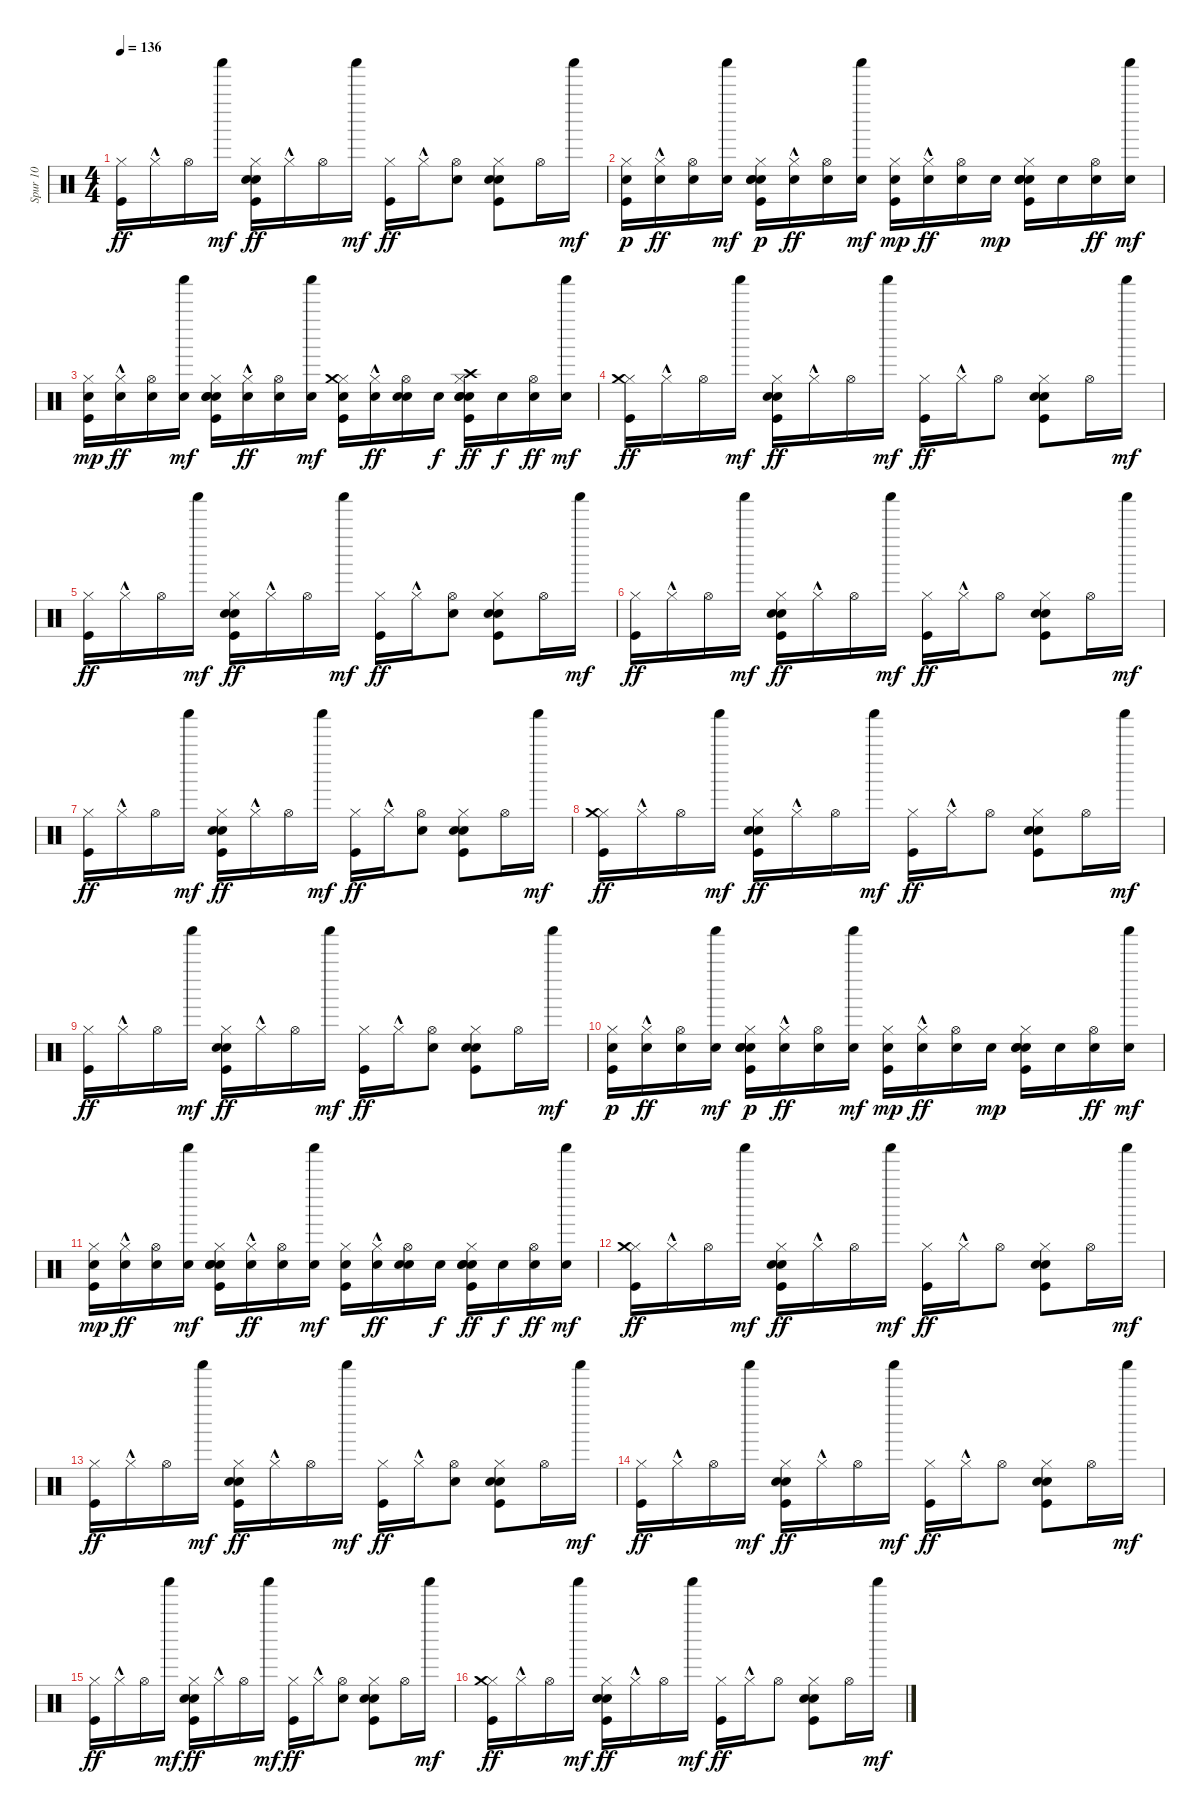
\track ("Spur 10" "Spur 10") {instrument percussion}
\staff {score}
\articulation defaults
\ts (4 4)
\tempo 136
\clef neutral
\ks c
("Kick (hit)" "Hi-Hat (closed)").16{dy ff} "Hi-Hat (closed)"{hac}.16 "Hi-Hat (open)".16 "Shaker (hit)".16{dy mf} ("Kick (hit)" "Electric Snare (hit)" "Hi-Hat (closed)" "Hand Clap (hit)").16{dy ff} "Hi-Hat (closed)"{hac}.16 "Hi-Hat (open)".16 "Shaker (hit)".16{dy mf} ("Kick (hit)" "Hi-Hat (closed)").16{dy ff} "Hi-Hat (closed)"{hac}.16 ("Hi-Hat (open)" "Hand Clap (hit)").8 ("Kick (hit)" "Electric Snare (hit)" "Hi-Hat (closed)" "Hand Clap (hit)").8 "Hi-Hat (open)".16 "Shaker (hit)".16{dy mf} |
("Kick (hit)" "Snare (hit) 2" "Hi-Hat (closed)").16{dy p} ("Snare (hit) 2" "Hi-Hat (closed)"{hac}).16{dy ff} ("Snare (hit) 2" "Hi-Hat (open)").16 ("Snare (hit) 2" "Shaker (hit)").16{dy mf} ("Kick (hit)" "Electric Snare (hit)" "Snare (hit) 2" "Hi-Hat (closed)" "Hand Clap (hit)").16{dy p} ("Snare (hit) 2" "Hi-Hat (closed)"{hac}).16{dy ff} ("Snare (hit) 2" "Hi-Hat (open)").16 ("Snare (hit) 2" "Shaker (hit)").16{dy mf} ("Kick (hit)" "Snare (hit) 2" "Hi-Hat (closed)").16{dy mp} ("Snare (hit) 2" "Hi-Hat (closed)"{hac}).16{dy ff} ("Snare (hit) 2" "Hi-Hat (open)").16 "Snare (hit) 2".16{dy mp} ("Kick (hit)" "Electric Snare (hit)" "Snare (hit) 2" "Hi-Hat (closed)" "Hand Clap (hit)").16 "Snare (hit) 2".16 ("Snare (hit) 2" "Hi-Hat (open)").16{dy ff} ("Snare (hit) 2" "Shaker (hit)").16{dy mf} |
("Kick (hit)" "Snare (hit) 2" "Hi-Hat (closed)").16{dy mp} ("Snare (hit) 2" "Hi-Hat (closed)"{hac}).16{dy ff} ("Snare (hit) 2" "Hi-Hat (open)").16 ("Snare (hit) 2" "Shaker (hit)").16{dy mf} ("Kick (hit)" "Electric Snare (hit)" "Snare (hit) 2" "Hi-Hat (closed)" "Hand Clap (hit)").16 ("Snare (hit) 2" "Hi-Hat (closed)"{hac}).16{dy ff} ("Snare (hit) 2" "Hi-Hat (open)").16 ("Snare (hit) 2" "Shaker (hit)").16{dy mf} ("Kick (hit)" "Snare (hit) 2" "Hi-Hat (closed)" "Crash medium (hit)").16 ("Snare (hit) 2" "Hi-Hat (closed)"{hac}).16{dy ff} ("Snare (hit) 2" "Hi-Hat (open)" "Hand Clap (hit)").16 "Snare (hit) 2".16{dy f} ("Kick (hit)" "Electric Snare (hit)" "Snare (hit) 2" "Hi-Hat (closed)" "Crash high (hit)" "Hand Clap (hit)").16{dy ff} "Snare (hit) 2".16{dy f} ("Snare (hit) 2" "Hi-Hat (open)").16{dy ff} ("Snare (hit) 2" "Shaker (hit)").16{dy mf} |
("Kick (hit)" "Hi-Hat (closed)" "Crash medium (hit)").16{dy ff} "Hi-Hat (closed)"{hac}.16 "Hi-Hat (open)".16 "Shaker (hit)".16{dy mf} ("Kick (hit)" "Electric Snare (hit)" "Hi-Hat (closed)" "Hand Clap (hit)").16{dy ff} "Hi-Hat (closed)"{hac}.16 "Hi-Hat (open)".16 "Shaker (hit)".16{dy mf} ("Kick (hit)" "Hi-Hat (closed)").16{dy ff} "Hi-Hat (closed)"{hac}.16 "Hi-Hat (open)".8 ("Kick (hit)" "Electric Snare (hit)" "Hi-Hat (closed)" "Hand Clap (hit)").8 "Hi-Hat (open)".16 "Shaker (hit)".16{dy mf} |
("Kick (hit)" "Hi-Hat (closed)").16{dy ff} "Hi-Hat (closed)"{hac}.16 "Hi-Hat (open)".16 "Shaker (hit)".16{dy mf} ("Kick (hit)" "Electric Snare (hit)" "Hi-Hat (closed)" "Hand Clap (hit)").16{dy ff} "Hi-Hat (closed)"{hac}.16 "Hi-Hat (open)".16 "Shaker (hit)".16{dy mf} ("Kick (hit)" "Hi-Hat (closed)").16{dy ff} "Hi-Hat (closed)"{hac}.16 ("Hi-Hat (open)" "Hand Clap (hit)").8 ("Kick (hit)" "Electric Snare (hit)" "Hi-Hat (closed)" "Hand Clap (hit)").8 "Hi-Hat (open)".16 "Shaker (hit)".16{dy mf} |
("Kick (hit)" "Hi-Hat (closed)").16{dy ff} "Hi-Hat (closed)"{hac}.16 "Hi-Hat (open)".16 "Shaker (hit)".16{dy mf} ("Kick (hit)" "Electric Snare (hit)" "Hi-Hat (closed)" "Hand Clap (hit)").16{dy ff} "Hi-Hat (closed)"{hac}.16 "Hi-Hat (open)".16 "Shaker (hit)".16{dy mf} ("Kick (hit)" "Hi-Hat (closed)").16{dy ff} "Hi-Hat (closed)"{hac}.16 "Hi-Hat (open)".8 ("Kick (hit)" "Electric Snare (hit)" "Hi-Hat (closed)" "Hand Clap (hit)").8 "Hi-Hat (open)".16 "Shaker (hit)".16{dy mf} |
("Kick (hit)" "Hi-Hat (closed)").16{dy ff} "Hi-Hat (closed)"{hac}.16 "Hi-Hat (open)".16 "Shaker (hit)".16{dy mf} ("Kick (hit)" "Electric Snare (hit)" "Hi-Hat (closed)" "Hand Clap (hit)").16{dy ff} "Hi-Hat (closed)"{hac}.16 "Hi-Hat (open)".16 "Shaker (hit)".16{dy mf} ("Kick (hit)" "Hi-Hat (closed)").16{dy ff} "Hi-Hat (closed)"{hac}.16 ("Hi-Hat (open)" "Hand Clap (hit)").8 ("Kick (hit)" "Electric Snare (hit)" "Hi-Hat (closed)" "Hand Clap (hit)").8 "Hi-Hat (open)".16 "Shaker (hit)".16{dy mf} |
("Kick (hit)" "Hi-Hat (closed)" "Crash medium (hit)").16{dy ff} "Hi-Hat (closed)"{hac}.16 "Hi-Hat (open)".16 "Shaker (hit)".16{dy mf} ("Kick (hit)" "Electric Snare (hit)" "Hi-Hat (closed)" "Hand Clap (hit)").16{dy ff} "Hi-Hat (closed)"{hac}.16 "Hi-Hat (open)".16 "Shaker (hit)".16{dy mf} ("Kick (hit)" "Hi-Hat (closed)").16{dy ff} "Hi-Hat (closed)"{hac}.16 "Hi-Hat (open)".8 ("Kick (hit)" "Electric Snare (hit)" "Hi-Hat (closed)" "Hand Clap (hit)").8 "Hi-Hat (open)".16 "Shaker (hit)".16{dy mf} |
("Kick (hit)" "Hi-Hat (closed)").16{dy ff} "Hi-Hat (closed)"{hac}.16 "Hi-Hat (open)".16 "Shaker (hit)".16{dy mf} ("Kick (hit)" "Electric Snare (hit)" "Hi-Hat (closed)" "Hand Clap (hit)").16{dy ff} "Hi-Hat (closed)"{hac}.16 "Hi-Hat (open)".16 "Shaker (hit)".16{dy mf} ("Kick (hit)" "Hi-Hat (closed)").16{dy ff} "Hi-Hat (closed)"{hac}.16 ("Hi-Hat (open)" "Hand Clap (hit)").8 ("Kick (hit)" "Electric Snare (hit)" "Hi-Hat (closed)" "Hand Clap (hit)").8 "Hi-Hat (open)".16 "Shaker (hit)".16{dy mf} |
("Kick (hit)" "Snare (hit) 2" "Hi-Hat (closed)").16{dy p} ("Snare (hit) 2" "Hi-Hat (closed)"{hac}).16{dy ff} ("Snare (hit) 2" "Hi-Hat (open)").16 ("Snare (hit) 2" "Shaker (hit)").16{dy mf} ("Kick (hit)" "Electric Snare (hit)" "Snare (hit) 2" "Hi-Hat (closed)" "Hand Clap (hit)").16{dy p} ("Snare (hit) 2" "Hi-Hat (closed)"{hac}).16{dy ff} ("Snare (hit) 2" "Hi-Hat (open)").16 ("Snare (hit) 2" "Shaker (hit)").16{dy mf} ("Kick (hit)" "Snare (hit) 2" "Hi-Hat (closed)").16{dy mp} ("Snare (hit) 2" "Hi-Hat (closed)"{hac}).16{dy ff} ("Snare (hit) 2" "Hi-Hat (open)").16 "Snare (hit) 2".16{dy mp} ("Kick (hit)" "Electric Snare (hit)" "Snare (hit) 2" "Hi-Hat (closed)" "Hand Clap (hit)").16 "Snare (hit) 2".16 ("Snare (hit) 2" "Hi-Hat (open)").16{dy ff} ("Snare (hit) 2" "Shaker (hit)").16{dy mf} |
("Kick (hit)" "Snare (hit) 2" "Hi-Hat (closed)").16{dy mp} ("Snare (hit) 2" "Hi-Hat (closed)"{hac}).16{dy ff} ("Snare (hit) 2" "Hi-Hat (open)").16 ("Snare (hit) 2" "Shaker (hit)").16{dy mf} ("Kick (hit)" "Electric Snare (hit)" "Snare (hit) 2" "Hi-Hat (closed)" "Hand Clap (hit)").16 ("Snare (hit) 2" "Hi-Hat (closed)"{hac}).16{dy ff} ("Snare (hit) 2" "Hi-Hat (open)").16 ("Snare (hit) 2" "Shaker (hit)").16{dy mf} ("Kick (hit)" "Snare (hit) 2" "Hi-Hat (closed)").16 ("Snare (hit) 2" "Hi-Hat (closed)"{hac}).16{dy ff} ("Snare (hit) 2" "Hi-Hat (open)" "Hand Clap (hit)").16 "Snare (hit) 2".16{dy f} ("Kick (hit)" "Electric Snare (hit)" "Snare (hit) 2" "Hi-Hat (closed)" "Hand Clap (hit)").16{dy ff} "Snare (hit) 2".16{dy f} ("Snare (hit) 2" "Hi-Hat (open)").16{dy ff} ("Snare (hit) 2" "Shaker (hit)").16{dy mf} |
("Kick (hit)" "Hi-Hat (closed)" "Crash medium (hit)").16{dy ff} "Hi-Hat (closed)"{hac}.16 "Hi-Hat (open)".16 "Shaker (hit)".16{dy mf} ("Kick (hit)" "Electric Snare (hit)" "Hi-Hat (closed)" "Hand Clap (hit)").16{dy ff} "Hi-Hat (closed)"{hac}.16 "Hi-Hat (open)".16 "Shaker (hit)".16{dy mf} ("Kick (hit)" "Hi-Hat (closed)").16{dy ff} "Hi-Hat (closed)"{hac}.16 "Hi-Hat (open)".8 ("Kick (hit)" "Electric Snare (hit)" "Hi-Hat (closed)" "Hand Clap (hit)").8 "Hi-Hat (open)".16 "Shaker (hit)".16{dy mf} |
("Kick (hit)" "Hi-Hat (closed)").16{dy ff} "Hi-Hat (closed)"{hac}.16 "Hi-Hat (open)".16 "Shaker (hit)".16{dy mf} ("Kick (hit)" "Electric Snare (hit)" "Hi-Hat (closed)" "Hand Clap (hit)").16{dy ff} "Hi-Hat (closed)"{hac}.16 "Hi-Hat (open)".16 "Shaker (hit)".16{dy mf} ("Kick (hit)" "Hi-Hat (closed)").16{dy ff} "Hi-Hat (closed)"{hac}.16 ("Hi-Hat (open)" "Hand Clap (hit)").8 ("Kick (hit)" "Electric Snare (hit)" "Hi-Hat (closed)" "Hand Clap (hit)").8 "Hi-Hat (open)".16 "Shaker (hit)".16{dy mf} |
("Kick (hit)" "Hi-Hat (closed)").16{dy ff} "Hi-Hat (closed)"{hac}.16 "Hi-Hat (open)".16 "Shaker (hit)".16{dy mf} ("Kick (hit)" "Electric Snare (hit)" "Hi-Hat (closed)" "Hand Clap (hit)").16{dy ff} "Hi-Hat (closed)"{hac}.16 "Hi-Hat (open)".16 "Shaker (hit)".16{dy mf} ("Kick (hit)" "Hi-Hat (closed)").16{dy ff} "Hi-Hat (closed)"{hac}.16 "Hi-Hat (open)".8 ("Kick (hit)" "Electric Snare (hit)" "Hi-Hat (closed)" "Hand Clap (hit)").8 "Hi-Hat (open)".16 "Shaker (hit)".16{dy mf} |
("Kick (hit)" "Hi-Hat (closed)").16{dy ff} "Hi-Hat (closed)"{hac}.16 "Hi-Hat (open)".16 "Shaker (hit)".16{dy mf} ("Kick (hit)" "Electric Snare (hit)" "Hi-Hat (closed)" "Hand Clap (hit)").16{dy ff} "Hi-Hat (closed)"{hac}.16 "Hi-Hat (open)".16 "Shaker (hit)".16{dy mf} ("Kick (hit)" "Hi-Hat (closed)").16{dy ff} "Hi-Hat (closed)"{hac}.16 ("Hi-Hat (open)" "Hand Clap (hit)").8 ("Kick (hit)" "Electric Snare (hit)" "Hi-Hat (closed)" "Hand Clap (hit)").8 "Hi-Hat (open)".16 "Shaker (hit)".16{dy mf} |
("Kick (hit)" "Hi-Hat (closed)" "Crash medium (hit)").16{dy ff} "Hi-Hat (closed)"{hac}.16 "Hi-Hat (open)".16 "Shaker (hit)".16{dy mf} ("Kick (hit)" "Electric Snare (hit)" "Hi-Hat (closed)" "Hand Clap (hit)").16{dy ff} "Hi-Hat (closed)"{hac}.16 "Hi-Hat (open)".16 "Shaker (hit)".16{dy mf} ("Kick (hit)" "Hi-Hat (closed)").16{dy ff} "Hi-Hat (closed)"{hac}.16 "Hi-Hat (open)".8 ("Kick (hit)" "Electric Snare (hit)" "Hi-Hat (closed)" "Hand Clap (hit)").8 "Hi-Hat (open)".16 "Shaker (hit)".16{dy mf}
